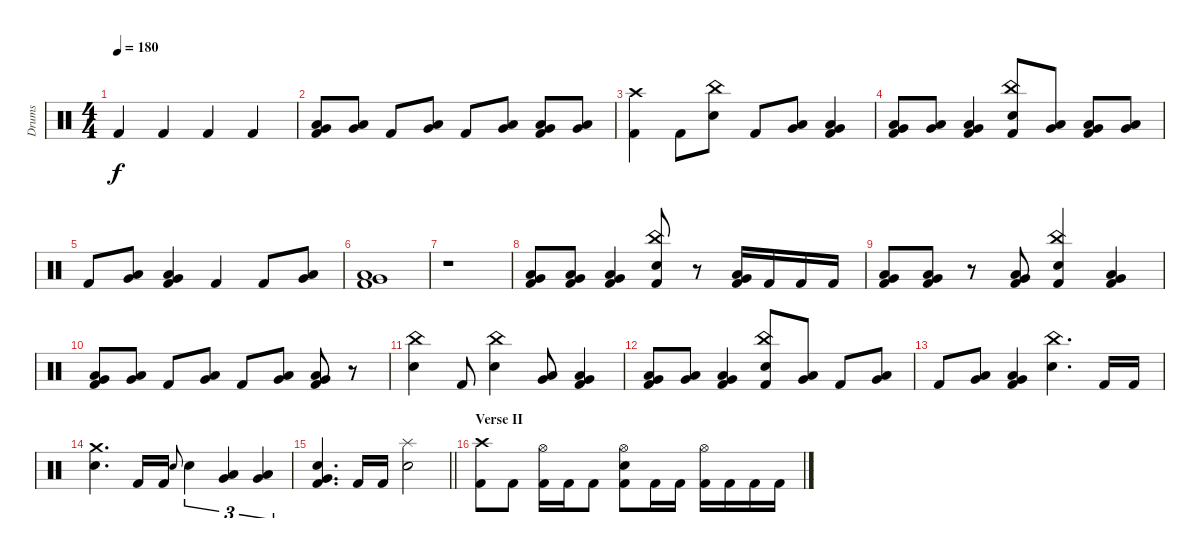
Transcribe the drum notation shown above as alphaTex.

\track ("Drums" "Drums") {instrument percussion}
\staff {score}
\articulation defaults
\ts (4 4)
\tempo 180
\clef neutral
\ks c "Kick (hit) 2".4{dy f} "Kick (hit) 2".4 "Kick (hit) 2".4 "Kick (hit) 2".4
|
("Very Low Tom (hit)" "Low Floor Tom (hit)" "Kick (hit) 2").8 ("Very Low Tom (hit)" "Low Floor Tom (hit)").8 "Kick (hit) 2".8 ("Very Low Tom (hit)" "Low Floor Tom (hit)").8 "Kick (hit) 2".8 ("Very Low Tom (hit)" "Low Floor Tom (hit)").8 ("Very Low Tom (hit)" "Low Floor Tom (hit)" "Kick (hit) 2").8 ("Very Low Tom (hit)" "Low Floor Tom (hit)").8 |
("Crash high (hit)" "Kick (hit) 2").4 "Kick (hit) 2".8 ("China (hit)" "Electric Snare (hit)").8 "Kick (hit) 2".8 ("Very Low Tom (hit)" "Low Floor Tom (hit)").8 ("Very Low Tom (hit)" "Low Floor Tom (hit)" "Kick (hit) 2").4 |
("Very Low Tom (hit)" "Low Floor Tom (hit)" "Kick (hit) 2").8 ("Very Low Tom (hit)" "Low Floor Tom (hit)").8 ("Very Low Tom (hit)" "Low Floor Tom (hit)" "Kick (hit) 2").4 ("China (hit)" "Electric Snare (hit)" "Kick (hit) 2").8 ("Very Low Tom (hit)" "Low Floor Tom (hit)").8 ("Very Low Tom (hit)" "Low Floor Tom (hit)" "Kick (hit) 2").8 ("Very Low Tom (hit)" "Low Floor Tom (hit)").8 |
"Kick (hit) 2".8 ("Very Low Tom (hit)" "Low Floor Tom (hit)").8 ("Very Low Tom (hit)" "Low Floor Tom (hit)" "Kick (hit) 2").4 "Kick (hit) 2".4 "Kick (hit) 2".8 ("Very Low Tom (hit)" "Low Floor Tom (hit)").8 |
("Very Low Tom (hit)" "Low Floor Tom (hit)" "Kick (hit) 2").1 |
r.1 |
("Very Low Tom (hit)" "Low Floor Tom (hit)" "Kick (hit) 2").8 ("Very Low Tom (hit)" "Low Floor Tom (hit)" "Kick (hit) 2").8 ("Very Low Tom (hit)" "Low Floor Tom (hit)" "Kick (hit) 2").4 ("China (hit)" "Electric Snare (hit)" "Kick (hit) 2").8 r.8 ("Very Low Tom (hit)" "Low Floor Tom (hit)" "Kick (hit) 2").16 "Kick (hit) 2".16 "Kick (hit) 2".16 "Kick (hit) 2".16 |
("Very Low Tom (hit)" "Low Floor Tom (hit)" "Kick (hit) 2").8 ("Very Low Tom (hit)" "Low Floor Tom (hit)" "Kick (hit) 2").8 r.8 ("Very Low Tom (hit)" "Low Floor Tom (hit)" "Kick (hit) 2").8 ("China (hit)" "Electric Snare (hit)" "Kick (hit) 2").4 ("Very Low Tom (hit)" "Low Floor Tom (hit)" "Kick (hit) 2").4 |
("Very Low Tom (hit)" "Low Floor Tom (hit)" "Kick (hit) 2").8 ("Very Low Tom (hit)" "Low Floor Tom (hit)").8 "Kick (hit) 2".8 ("Very Low Tom (hit)" "Low Floor Tom (hit)").8 "Kick (hit) 2".8 ("Very Low Tom (hit)" "Low Floor Tom (hit)").8 ("Very Low Tom (hit)" "Low Floor Tom (hit)" "Kick (hit) 2").8 r.8 |
("China (hit)" "Electric Snare (hit)").4 "Kick (hit) 2".8 ("China (hit)" "Electric Snare (hit)").4 ("Low Tom (hit)" "Very Low Tom (hit)").8 ("Very Low Tom (hit)" "Low Floor Tom (hit)" "Kick (hit) 2").4 |
("Very Low Tom (hit)" "Low Floor Tom (hit)" "Kick (hit) 2").8 ("Very Low Tom (hit)" "Low Floor Tom (hit)").8 ("Very Low Tom (hit)" "Low Floor Tom (hit)" "Kick (hit) 2").4 ("China (hit)" "Electric Snare (hit)" "Kick (hit) 2").8 ("Very Low Tom (hit)" "Low Floor Tom (hit)").8 "Kick (hit) 2".8 ("Very Low Tom (hit)" "Low Floor Tom (hit)").8 |
"Kick (hit) 2".8 ("Very Low Tom (hit)" "Low Floor Tom (hit)").8 ("Very Low Tom (hit)" "Low Floor Tom (hit)" "Kick (hit) 2").4 ("China (hit)" "Electric Snare (hit)").4{d} "Kick (hit) 2".16 "Kick (hit) 2".16 |
("Crash medium (hit)" "Electric Snare (hit)").4{d} "Kick (hit) 2".16 "Kick (hit) 2".16 "Electric Snare (hit)".8{gr onbeat} "Electric Snare (hit)".4{tu (3 2)} ("Low Tom (hit)" "Very Low Tom (hit)").4{tu (3 2)} ("Very Low Tom (hit)" "Low Floor Tom (hit)").4{tu (3 2)} |
\barLineRight lightlight
("Very Low Tom (hit)" "Electric Snare (hit)" "Kick (hit) 2").4{d} "Kick (hit) 2".16 "Kick (hit) 2".16 ("Splash (hit)" "Electric Snare (hit)").2 |
\section ("" "Verse II")
("Crash high (hit)" "Kick (hit) 2").8 "Kick (hit) 2".8 ("Hi-Hat (open)" "Kick (hit) 2").16 "Kick (hit) 2".16 "Kick (hit) 2".8 ("Hi-Hat (open)" "Electric Snare (hit)" "Kick (hit) 2").8 "Kick (hit) 2".16 "Kick (hit) 2".16 ("Hi-Hat (open)" "Kick (hit) 2").16 "Kick (hit) 2".16 "Kick (hit) 2".16 "Kick (hit) 2".16
